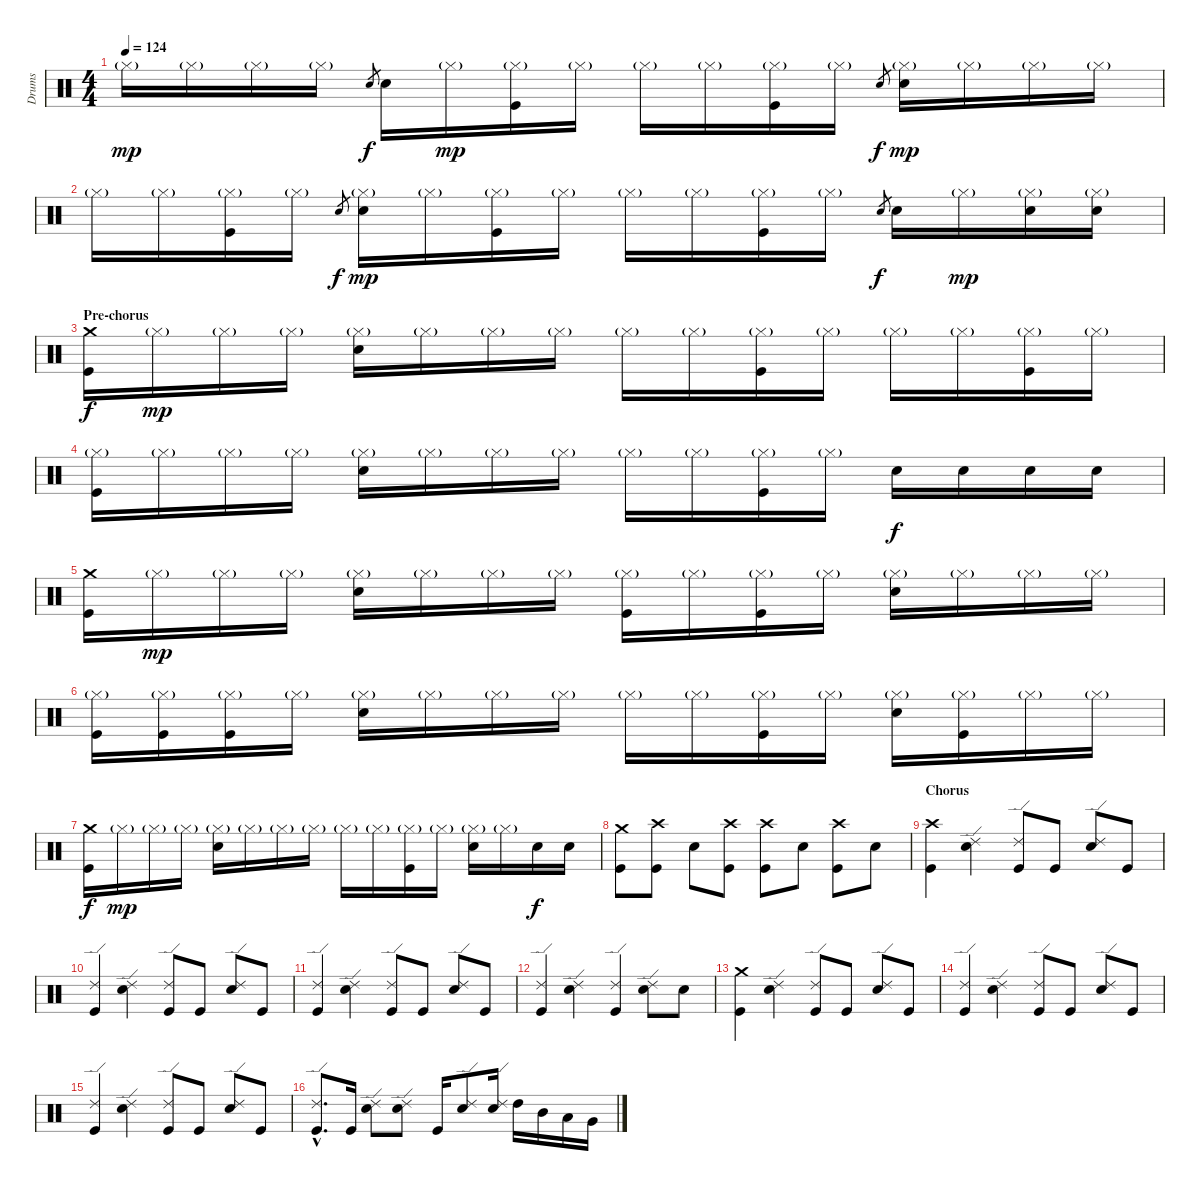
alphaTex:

\track ("Drums" "Drums") {instrument percussion}
\staff {score}
\articulation defaults
\ts (4 4)
\tempo 124
\clef neutral
\ks c "Hi-Hat (closed)"{g}.16{dy mp} "Hi-Hat (closed)"{g}.16 "Hi-Hat (closed)"{g}.16 "Hi-Hat (closed)"{g}.16 "Snare (hit) 2"{h}.8{gr dy f} "Snare (hit) 2".16 "Hi-Hat (closed)"{g}.16{dy mp}
("Hi-Hat (closed)"{g} "Kick (hit)").16 "Hi-Hat (closed)"{g}.16 "Hi-Hat (closed)"{g}.16 "Hi-Hat (closed)"{g}.16 ("Hi-Hat (closed)"{g} "Kick (hit)").16 "Hi-Hat (closed)"{g}.16 "Snare (hit) 2".8{gr dy f} ("Hi-Hat (closed)"{g} "Snare (hit) 2").16{dy mp} "Hi-Hat (closed)"{g}.16 "Hi-Hat (closed)"{g}.16 "Hi-Hat (closed)"{g}.16 |
"Hi-Hat (closed)"{g}.16 "Hi-Hat (closed)"{g}.16 ("Hi-Hat (closed)"{g} "Kick (hit)").16 "Hi-Hat (closed)"{g}.16 "Snare (hit) 2".8{gr dy f} ("Hi-Hat (closed)"{g} "Snare (hit) 2").16{dy mp} "Hi-Hat (closed)"{g}.16 ("Hi-Hat (closed)"{g} "Kick (hit)").16 "Hi-Hat (closed)"{g}.16 "Hi-Hat (closed)"{g}.16 "Hi-Hat (closed)"{g}.16 ("Hi-Hat (closed)"{g} "Kick (hit)").16 "Hi-Hat (closed)"{g}.16 "Snare (hit) 2".8{gr dy f} "Snare (hit) 2".16 "Hi-Hat (closed)"{g}.16{dy mp} ("Hi-Hat (closed)"{g} "Snare (hit) 2").16 ("Hi-Hat (closed)"{g} "Snare (hit) 2").16 |
\section ("" "Pre-chorus")
("Crash medium (hit)" "Kick (hit)").16{dy f} "Hi-Hat (closed)"{g}.16{dy mp} "Hi-Hat (closed)"{g}.16 "Hi-Hat (closed)"{g}.16 ("Hi-Hat (closed)"{g} "Snare (hit) 2").16 "Hi-Hat (closed)"{g}.16 "Hi-Hat (closed)"{g}.16 "Hi-Hat (closed)"{g}.16 "Hi-Hat (closed)"{g}.16 "Hi-Hat (closed)"{g}.16 ("Hi-Hat (closed)"{g} "Kick (hit)").16 "Hi-Hat (closed)"{g}.16 "Hi-Hat (closed)"{g}.16 "Hi-Hat (closed)"{g}.16 ("Hi-Hat (closed)"{g} "Kick (hit)").16 "Hi-Hat (closed)"{g}.16 |
("Hi-Hat (closed)"{g} "Kick (hit)").16 "Hi-Hat (closed)"{g}.16 "Hi-Hat (closed)"{g}.16 "Hi-Hat (closed)"{g}.16 ("Hi-Hat (closed)"{g} "Snare (hit) 2").16 "Hi-Hat (closed)"{g}.16 "Hi-Hat (closed)"{g}.16 "Hi-Hat (closed)"{g}.16 "Hi-Hat (closed)"{g}.16 "Hi-Hat (closed)"{g}.16 ("Hi-Hat (closed)"{g} "Kick (hit)").16 "Hi-Hat (closed)"{g}.16 "Snare (hit) 2".16{dy f} "Snare (hit) 2".16 "Snare (hit) 2".16 "Snare (hit) 2".16 |
("Crash medium (hit)" "Kick (hit)").16 "Hi-Hat (closed)"{g}.16{dy mp} "Hi-Hat (closed)"{g}.16 "Hi-Hat (closed)"{g}.16 ("Hi-Hat (closed)"{g} "Snare (hit) 2").16 "Hi-Hat (closed)"{g}.16 "Hi-Hat (closed)"{g}.16 "Hi-Hat (closed)"{g}.16 ("Hi-Hat (closed)"{g} "Kick (hit)").16 "Hi-Hat (closed)"{g}.16 ("Hi-Hat (closed)"{g} "Kick (hit)").16 "Hi-Hat (closed)"{g}.16 ("Hi-Hat (closed)"{g} "Snare (hit) 2").16 "Hi-Hat (closed)"{g}.16 "Hi-Hat (closed)"{g}.16 "Hi-Hat (closed)"{g}.16 |
("Hi-Hat (closed)"{g} "Kick (hit)").16 ("Hi-Hat (closed)"{g} "Kick (hit)").16 ("Hi-Hat (closed)"{g} "Kick (hit)").16 "Hi-Hat (closed)"{g}.16 ("Hi-Hat (closed)"{g} "Snare (hit) 2").16 "Hi-Hat (closed)"{g}.16 "Hi-Hat (closed)"{g}.16 "Hi-Hat (closed)"{g}.16 "Hi-Hat (closed)"{g}.16 "Hi-Hat (closed)"{g}.16 ("Hi-Hat (closed)"{g} "Kick (hit)").16 "Hi-Hat (closed)"{g}.16 ("Hi-Hat (closed)"{g} "Snare (hit) 2").16 ("Hi-Hat (closed)"{g} "Kick (hit)").16 "Hi-Hat (closed)"{g}.16 "Hi-Hat (closed)"{g}.16 |
("Crash medium (hit)" "Kick (hit)").16{dy f} "Hi-Hat (closed)"{g}.16{dy mp} "Hi-Hat (closed)"{g}.16 "Hi-Hat (closed)"{g}.16 ("Hi-Hat (closed)"{g} "Snare (hit) 2").16 "Hi-Hat (closed)"{g}.16 "Hi-Hat (closed)"{g}.16 "Hi-Hat (closed)"{g}.16 "Hi-Hat (closed)"{g}.16 "Hi-Hat (closed)"{g}.16 ("Hi-Hat (closed)"{g} "Kick (hit)").16 "Hi-Hat (closed)"{g}.16 ("Hi-Hat (closed)"{g} "Snare (hit) 2").16 "Hi-Hat (closed)"{g}.16 "Snare (hit) 2".16{dy f} "Snare (hit) 2".16 |
("Crash medium (hit)" "Kick (hit)").8 ("Crash high (hit)" "Kick (hit)").8 "Snare (hit) 2".8 ("Crash high (hit)" "Kick (hit)").8 ("Crash high (hit)" "Kick (hit)").8 "Snare (hit) 2".8 ("Crash high (hit)" "Kick (hit)").8 "Snare (hit) 2".8 |
\section ("" "Chorus")
("Crash high (hit)" "Kick (hit)").4 ("Ride (edge) 2" "Snare (hit) 2").4 ("Ride (edge) 2" "Kick (hit)").8 "Kick (hit)".8 ("Ride (edge) 2" "Snare (hit) 2").8 "Kick (hit)".8 |
("Ride (edge) 2" "Kick (hit)").4 ("Ride (edge) 2" "Snare (hit) 2").4 ("Ride (edge) 2" "Kick (hit)").8 "Kick (hit)".8 ("Ride (edge) 2" "Snare (hit) 2").8 "Kick (hit)".8 |
("Ride (edge) 2" "Kick (hit)").4 ("Ride (edge) 2" "Snare (hit) 2").4 ("Ride (edge) 2" "Kick (hit)").8 "Kick (hit)".8 ("Ride (edge) 2" "Snare (hit) 2").8 "Kick (hit)".8 |
("Ride (edge) 2" "Kick (hit)").4 ("Ride (edge) 2" "Snare (hit) 2").4 ("Ride (edge) 2" "Kick (hit)").4 ("Ride (edge) 2" "Snare (hit) 2").8 "Snare (hit) 2".8 |
("Crash medium (hit)" "Kick (hit)").4 ("Ride (edge) 2" "Snare (hit) 2").4 ("Ride (edge) 2" "Kick (hit)").8 "Kick (hit)".8 ("Ride (edge) 2" "Snare (hit) 2").8 "Kick (hit)".8 |
("Ride (edge) 2" "Kick (hit)").4 ("Ride (edge) 2" "Snare (hit) 2").4 ("Ride (edge) 2" "Kick (hit)").8 "Kick (hit)".8 ("Ride (edge) 2" "Snare (hit) 2").8 "Kick (hit)".8 |
("Ride (edge) 2" "Kick (hit)").4 ("Ride (edge) 2" "Snare (hit) 2").4 ("Ride (edge) 2" "Kick (hit)").8 "Kick (hit)".8 ("Ride (edge) 2" "Snare (hit) 2").8 "Kick (hit)".8 |
("Ride (edge) 2"{hac} "Kick (hit)"{hac}).8{d} "Kick (hit)".16 ("Ride (edge) 2" "Snare (hit) 2").8 ("Ride (edge) 2" "Snare (hit) 2").8 "Kick (hit)".16 ("Ride (edge) 2" "Snare (hit) 2").8 ("Ride (edge) 2" "Snare (hit) 2").16 "High Tom (hit)".16 "Mid Tom (hit)".16 "Low Tom (hit)".16 "Very Low Tom (hit)".16
